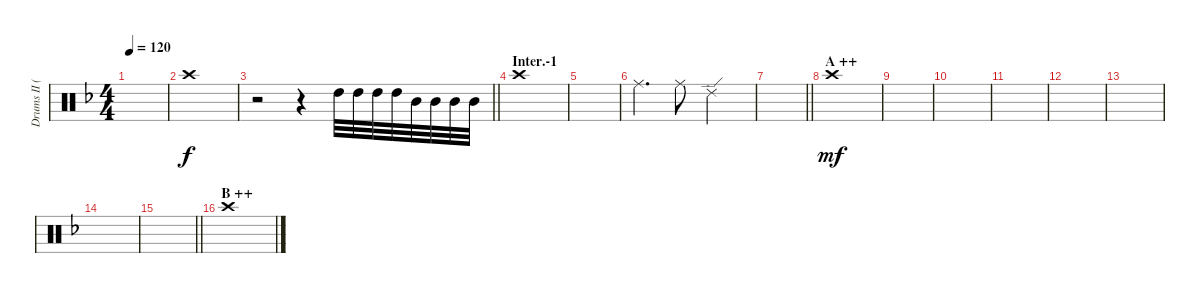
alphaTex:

\track ("Drums II (Tainaka Ritsu)" "Drums II (") {instrument percussion}
\staff {score}
\articulation defaults
\ts (4 4)
\tempo 120
\clef neutral
\ks f
|
"Crash high (hit)".1 |
\barLineRight lightlight
r.2 r.4 "High Tom (hit)".32 "High Tom (hit)".32 "High Tom (hit)".32 "High Tom (hit)".32 "Mid Tom (hit)".32 "Mid Tom (hit)".32 "Mid Tom (hit)".32 "Mid Tom (hit)".32 |
\section ("" "Inter.-1")
"Crash high (hit)".1 |
|
"Ride (middle)".4{d dy f} "Ride (middle)".8 "Ride (edge) 2".2 |
\barLineRight lightlight
|
\section ("" "A ++")
"Crash high (hit)".1{dy mf} |
|
|
|
|
|
|
\barLineRight lightlight
|
\section ("" "B ++")
"Crash high (hit)".1
